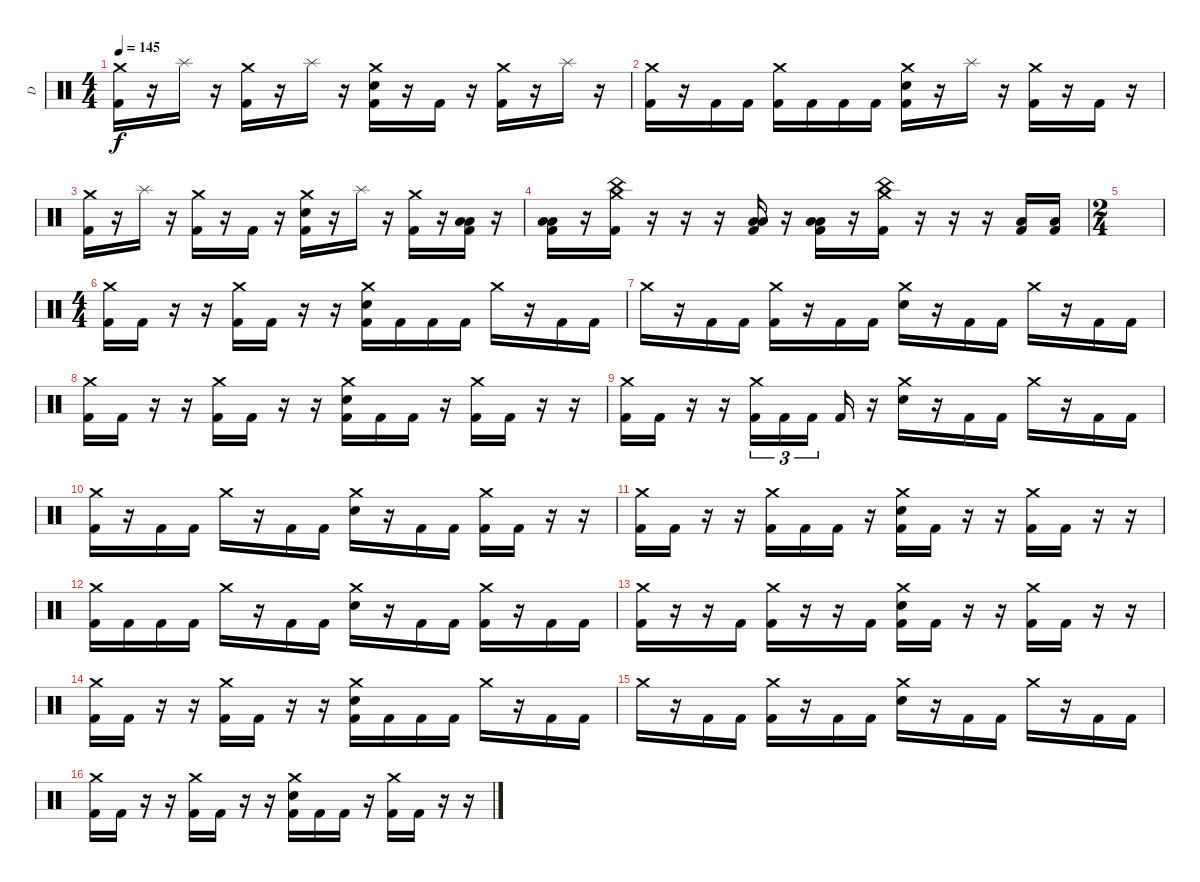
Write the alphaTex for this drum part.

\track ("D" "D") {instrument percussion}
\staff {score}
\articulation defaults
\ts (4 4)
\tempo 145
\clef neutral
\ks c
("Crash medium (hit)" "Kick (hit) 2").16{dy f} r.16 "Splash (hit)".16 r.16 ("Crash medium (hit)" "Kick (hit) 2").16 r.16 "Splash (hit)".16 r.16 ("Crash medium (hit)" "Electric Snare (hit)" "Kick (hit) 2").16 r.16 "Kick (hit) 2".16 r.16 ("Crash medium (hit)" "Kick (hit) 2").16 r.16 "Splash (hit)".16 r.16 |
("Crash medium (hit)" "Kick (hit) 2").16 r.16 "Kick (hit) 2".16 "Kick (hit) 2".16 ("Crash medium (hit)" "Kick (hit) 2").16 "Kick (hit) 2".16 "Kick (hit) 2".16 "Kick (hit) 2".16 ("Crash medium (hit)" "Electric Snare (hit)" "Kick (hit) 2").16 r.16 "Splash (hit)".16 r.16 ("Crash medium (hit)" "Kick (hit) 2").16 r.16 "Kick (hit) 2".16 r.16 |
("Crash medium (hit)" "Kick (hit) 2").16 r.16 "Splash (hit)".16 r.16 ("Crash medium (hit)" "Kick (hit) 2").16 r.16 "Kick (hit) 2".16 r.16 ("Crash medium (hit)" "Electric Snare (hit)" "Kick (hit) 2").16 r.16 "Splash (hit)".16 r.16 ("Crash medium (hit)" "Kick (hit) 2").16 r.16 ("Low Floor Tom (hit)" "Low Tom (hit)" "Kick (hit) 2").16 r.16 |
("Low Floor Tom (hit)" "Low Tom (hit)" "Kick (hit) 2").16 r.16 ("Crash medium (hit)" "China (hit)" "Kick (hit) 2").16 r.16 r.16 r.16 ("Low Floor Tom (hit)" "Low Tom (hit)" "Kick (hit) 2").16 r.16 ("Low Floor Tom (hit)" "Low Tom (hit)" "Kick (hit) 2").16 r.16 ("Crash medium (hit)" "China (hit)" "Kick (hit) 2").16 r.16 r.16 r.16 ("Low Tom (hit)" "Kick (hit) 2").16 ("Low Floor Tom (hit)" "Kick (hit) 2").16 |
\ts (2 4)
|
\ts (4 4)
("Crash medium (hit)" "Kick (hit) 2").16 "Kick (hit) 2".16 r.16 r.16 ("Crash medium (hit)" "Kick (hit) 2").16 "Kick (hit) 2".16 r.16 r.16 ("Crash medium (hit)" "Electric Snare (hit)" "Kick (hit) 2").16 "Kick (hit) 2".16 "Kick (hit) 2".16 "Kick (hit) 2".16 "Crash medium (hit)".16 r.16 "Kick (hit) 2".16 "Kick (hit) 2".16 |
"Crash medium (hit)".16 r.16 "Kick (hit) 2".16 "Kick (hit) 2".16 ("Crash medium (hit)" "Kick (hit) 2").16 r.16 "Kick (hit) 2".16 "Kick (hit) 2".16 ("Crash medium (hit)" "Electric Snare (hit)").16 r.16 "Kick (hit) 2".16 "Kick (hit) 2".16 "Crash medium (hit)".16 r.16 "Kick (hit) 2".16 "Kick (hit) 2".16 |
("Crash medium (hit)" "Kick (hit) 2").16 "Kick (hit) 2".16 r.16 r.16 ("Crash medium (hit)" "Kick (hit) 2").16 "Kick (hit) 2".16 r.16 r.16 ("Crash medium (hit)" "Electric Snare (hit)" "Kick (hit) 2").16 "Kick (hit) 2".16 "Kick (hit) 2".16 r.16 ("Crash medium (hit)" "Kick (hit) 2").16 "Kick (hit) 2".16 r.16 r.16 |
("Crash medium (hit)" "Kick (hit) 2").16 "Kick (hit) 2".16 r.16 r.16 ("Crash medium (hit)" "Kick (hit) 2").16{tu (3 2)} "Kick (hit) 2".16{tu (3 2)} "Kick (hit) 2".16{tu (3 2) beam splitsecondary} "Kick (hit) 2".16 r.16 ("Crash medium (hit)" "Electric Snare (hit)").16 r.16 "Kick (hit) 2".16 "Kick (hit) 2".16 "Crash medium (hit)".16 r.16 "Kick (hit) 2".16 "Kick (hit) 2".16 |
("Crash medium (hit)" "Kick (hit) 2").16 r.16 "Kick (hit) 2".16 "Kick (hit) 2".16 "Crash medium (hit)".16 r.16 "Kick (hit) 2".16 "Kick (hit) 2".16 ("Crash medium (hit)" "Electric Snare (hit)").16 r.16 "Kick (hit) 2".16 "Kick (hit) 2".16 ("Crash medium (hit)" "Kick (hit) 2").16 "Kick (hit) 2".16 r.16 r.16 |
("Crash medium (hit)" "Kick (hit) 2").16 "Kick (hit) 2".16 r.16 r.16 ("Crash medium (hit)" "Kick (hit) 2").16 "Kick (hit) 2".16 "Kick (hit) 2".16 r.16 ("Crash medium (hit)" "Electric Snare (hit)" "Kick (hit) 2").16 "Kick (hit) 2".16 r.16 r.16 ("Crash medium (hit)" "Kick (hit) 2").16 "Kick (hit) 2".16 r.16 r.16 |
("Crash medium (hit)" "Kick (hit) 2").16 "Kick (hit) 2".16 "Kick (hit) 2".16 "Kick (hit) 2".16 "Crash medium (hit)".16 r.16 "Kick (hit) 2".16 "Kick (hit) 2".16 ("Crash medium (hit)" "Electric Snare (hit)").16 r.16 "Kick (hit) 2".16 "Kick (hit) 2".16 ("Crash medium (hit)" "Kick (hit) 2").16 r.16 "Kick (hit) 2".16 "Kick (hit) 2".16 |
("Crash medium (hit)" "Kick (hit) 2").16 r.16 r.16 "Kick (hit) 2".16 ("Crash medium (hit)" "Kick (hit) 2").16 r.16 r.16 "Kick (hit) 2".16 ("Crash medium (hit)" "Electric Snare (hit)" "Kick (hit) 2").16 "Kick (hit) 2".16 r.16 r.16 ("Crash medium (hit)" "Kick (hit) 2").16 "Kick (hit) 2".16 r.16 r.16 |
("Crash medium (hit)" "Kick (hit) 2").16 "Kick (hit) 2".16 r.16 r.16 ("Crash medium (hit)" "Kick (hit) 2").16 "Kick (hit) 2".16 r.16 r.16 ("Crash medium (hit)" "Electric Snare (hit)" "Kick (hit) 2").16 "Kick (hit) 2".16 "Kick (hit) 2".16 "Kick (hit) 2".16 "Crash medium (hit)".16 r.16 "Kick (hit) 2".16 "Kick (hit) 2".16 |
"Crash medium (hit)".16 r.16 "Kick (hit) 2".16 "Kick (hit) 2".16 ("Crash medium (hit)" "Kick (hit) 2").16 r.16 "Kick (hit) 2".16 "Kick (hit) 2".16 ("Crash medium (hit)" "Electric Snare (hit)").16 r.16 "Kick (hit) 2".16 "Kick (hit) 2".16 "Crash medium (hit)".16 r.16 "Kick (hit) 2".16 "Kick (hit) 2".16 |
("Crash medium (hit)" "Kick (hit) 2").16 "Kick (hit) 2".16 r.16 r.16 ("Crash medium (hit)" "Kick (hit) 2").16 "Kick (hit) 2".16 r.16 r.16 ("Crash medium (hit)" "Electric Snare (hit)" "Kick (hit) 2").16 "Kick (hit) 2".16 "Kick (hit) 2".16 r.16 ("Crash medium (hit)" "Kick (hit) 2").16 "Kick (hit) 2".16 r.16 r.16
